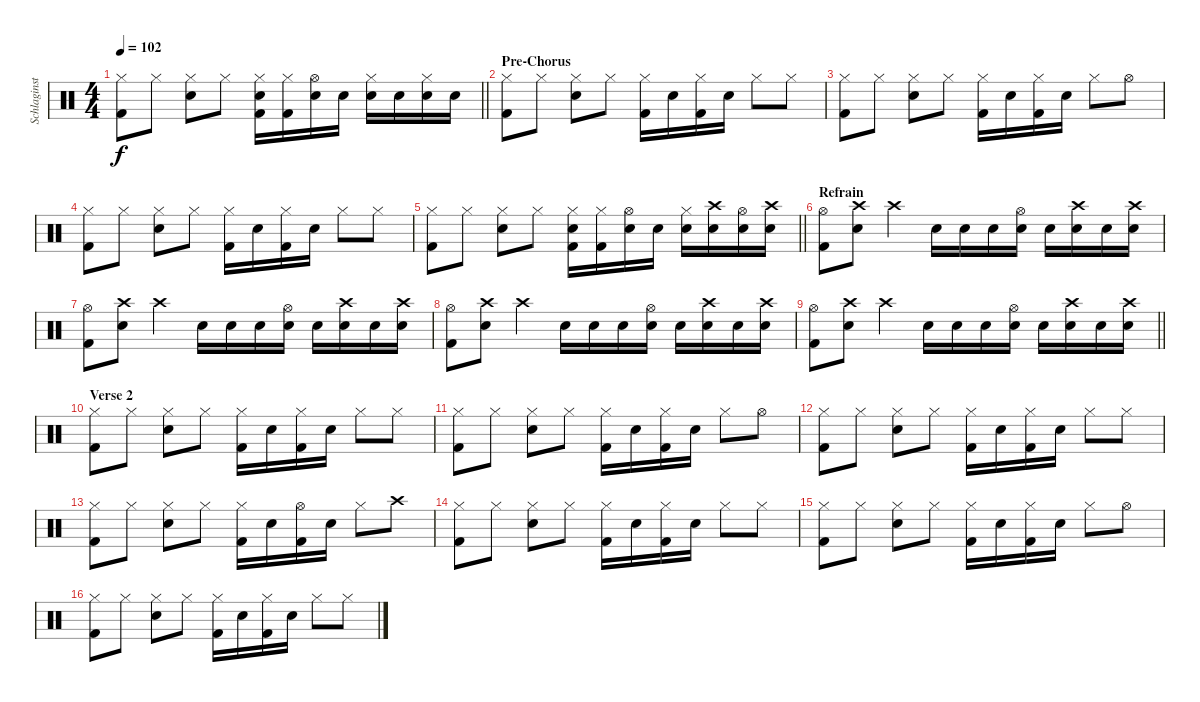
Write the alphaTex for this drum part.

\track ("Schlaginstrumente - Auswahl" "Schlaginst") {instrument percussion}
\staff {score}
\articulation defaults
\ts (4 4)
\tempo 102
\clef neutral
\barLineRight lightlight
\ks c
("Hi-Hat (closed)" "Kick (hit) 2").8{dy f} "Hi-Hat (closed)".8 ("Hi-Hat (closed)" "Electric Snare (hit)").8 "Hi-Hat (closed)".8 ("Hi-Hat (closed)" "Electric Snare (hit)" "Kick (hit) 2").16 ("Hi-Hat (closed)" "Kick (hit) 2").16 ("Hi-Hat (open)" "Electric Snare (hit)").16 "Electric Snare (hit)".16 ("Hi-Hat (closed)" "Electric Snare (hit)").16 "Electric Snare (hit)".16 ("Hi-Hat (closed)" "Electric Snare (hit)").16 "Electric Snare (hit)".16 |
\section ("" "Pre-Chorus")
("Hi-Hat (closed)" "Kick (hit) 2").8 "Hi-Hat (closed)".8 ("Hi-Hat (closed)" "Electric Snare (hit)").8 "Hi-Hat (closed)".8 ("Hi-Hat (closed)" "Kick (hit) 2").16 "Electric Snare (hit)".16 ("Hi-Hat (closed)" "Kick (hit) 2").16 "Electric Snare (hit)".16 "Hi-Hat (closed)".8 "Hi-Hat (closed)".8 |
("Hi-Hat (closed)" "Kick (hit) 2").8 "Hi-Hat (closed)".8 ("Hi-Hat (closed)" "Electric Snare (hit)").8 "Hi-Hat (closed)".8 ("Hi-Hat (closed)" "Kick (hit) 2").16 "Electric Snare (hit)".16 ("Hi-Hat (closed)" "Kick (hit) 2").16 "Electric Snare (hit)".16 "Hi-Hat (closed)".8 "Hi-Hat (open)".8 |
("Hi-Hat (closed)" "Kick (hit) 2").8 "Hi-Hat (closed)".8 ("Hi-Hat (closed)" "Electric Snare (hit)").8 "Hi-Hat (closed)".8 ("Hi-Hat (closed)" "Kick (hit) 2").16 "Electric Snare (hit)".16 ("Hi-Hat (closed)" "Kick (hit) 2").16 "Electric Snare (hit)".16 "Hi-Hat (closed)".8 "Hi-Hat (closed)".8 |
\barLineRight lightlight
("Hi-Hat (closed)" "Kick (hit) 2").8 "Hi-Hat (closed)".8 ("Hi-Hat (closed)" "Electric Snare (hit)").8 "Hi-Hat (closed)".8 ("Hi-Hat (closed)" "Electric Snare (hit)" "Kick (hit) 2").16 ("Hi-Hat (closed)" "Kick (hit) 2").16 ("Hi-Hat (open)" "Electric Snare (hit)").16 "Electric Snare (hit)".16 ("Hi-Hat (closed)" "Electric Snare (hit)").16 ("Crash high (hit)" "Electric Snare (hit)").16 ("Hi-Hat (open)" "Electric Snare (hit)").16 ("Crash high (hit)" "Electric Snare (hit)").16 |
\section ("" "Refrain")
("Hi-Hat (open)" "Kick (hit) 2").8 ("Crash high (hit)" "Electric Snare (hit)").8 "Crash high (hit)".4 "Snare (hit) 2".16 "Snare (hit) 2".16 "Snare (hit) 2".16 ("Snare (hit) 2" "Hi-Hat (open)").16 "Snare (hit) 2".16 ("Snare (hit) 2" "Crash high (hit)").16 "Snare (hit) 2".16 ("Snare (hit) 2" "Crash high (hit)").16 |
("Hi-Hat (open)" "Kick (hit) 2").8 ("Crash high (hit)" "Electric Snare (hit)").8 "Crash high (hit)".4 "Snare (hit) 2".16 "Snare (hit) 2".16 "Snare (hit) 2".16 ("Snare (hit) 2" "Hi-Hat (open)").16 "Snare (hit) 2".16 ("Snare (hit) 2" "Crash high (hit)").16 "Snare (hit) 2".16 ("Snare (hit) 2" "Crash high (hit)").16 |
("Hi-Hat (open)" "Kick (hit) 2").8 ("Crash high (hit)" "Electric Snare (hit)").8 "Crash high (hit)".4 "Snare (hit) 2".16 "Snare (hit) 2".16 "Snare (hit) 2".16 ("Snare (hit) 2" "Hi-Hat (open)").16 "Snare (hit) 2".16 ("Snare (hit) 2" "Crash high (hit)").16 "Snare (hit) 2".16 ("Snare (hit) 2" "Crash high (hit)").16 |
\barLineRight lightlight
("Hi-Hat (open)" "Kick (hit) 2").8 ("Crash high (hit)" "Electric Snare (hit)").8 "Crash high (hit)".4 "Snare (hit) 2".16 "Snare (hit) 2".16 "Snare (hit) 2".16 ("Snare (hit) 2" "Hi-Hat (open)").16 "Snare (hit) 2".16 ("Snare (hit) 2" "Crash high (hit)").16 "Snare (hit) 2".16 ("Snare (hit) 2" "Crash high (hit)").16 |
\section ("" "Verse 2")
("Hi-Hat (closed)" "Kick (hit) 2").8 "Hi-Hat (closed)".8 ("Hi-Hat (closed)" "Electric Snare (hit)").8 "Hi-Hat (closed)".8 ("Hi-Hat (closed)" "Kick (hit) 2").16 "Electric Snare (hit)".16 ("Hi-Hat (closed)" "Kick (hit) 2").16 "Electric Snare (hit)".16 "Hi-Hat (closed)".8 "Hi-Hat (closed)".8 |
("Hi-Hat (closed)" "Kick (hit) 2").8 "Hi-Hat (closed)".8 ("Hi-Hat (closed)" "Electric Snare (hit)").8 "Hi-Hat (closed)".8 ("Hi-Hat (closed)" "Kick (hit) 2").16 "Electric Snare (hit)".16 ("Hi-Hat (closed)" "Kick (hit) 2").16 "Electric Snare (hit)".16 "Hi-Hat (closed)".8 "Hi-Hat (open)".8 |
("Hi-Hat (closed)" "Kick (hit) 2").8 "Hi-Hat (closed)".8 ("Hi-Hat (closed)" "Electric Snare (hit)").8 "Hi-Hat (closed)".8 ("Hi-Hat (closed)" "Kick (hit) 2").16 "Electric Snare (hit)".16 ("Hi-Hat (closed)" "Kick (hit) 2").16 "Electric Snare (hit)".16 "Hi-Hat (closed)".8 "Hi-Hat (closed)".8 |
("Hi-Hat (closed)" "Kick (hit) 2").8 "Hi-Hat (closed)".8 ("Hi-Hat (closed)" "Electric Snare (hit)").8 "Hi-Hat (closed)".8 ("Hi-Hat (closed)" "Kick (hit) 2").16 "Electric Snare (hit)".16 ("Hi-Hat (open)" "Kick (hit) 2").16 "Electric Snare (hit)".16 "Hi-Hat (closed)".8 "Crash high (hit)".8 |
("Hi-Hat (closed)" "Kick (hit) 2").8 "Hi-Hat (closed)".8 ("Hi-Hat (closed)" "Electric Snare (hit)").8 "Hi-Hat (closed)".8 ("Hi-Hat (closed)" "Kick (hit) 2").16 "Electric Snare (hit)".16 ("Hi-Hat (closed)" "Kick (hit) 2").16 "Electric Snare (hit)".16 "Hi-Hat (closed)".8 "Hi-Hat (closed)".8 |
("Hi-Hat (closed)" "Kick (hit) 2").8 "Hi-Hat (closed)".8 ("Hi-Hat (closed)" "Electric Snare (hit)").8 "Hi-Hat (closed)".8 ("Hi-Hat (closed)" "Kick (hit) 2").16 "Electric Snare (hit)".16 ("Hi-Hat (closed)" "Kick (hit) 2").16 "Electric Snare (hit)".16 "Hi-Hat (closed)".8 "Hi-Hat (open)".8 |
("Hi-Hat (closed)" "Kick (hit) 2").8 "Hi-Hat (closed)".8 ("Hi-Hat (closed)" "Electric Snare (hit)").8 "Hi-Hat (closed)".8 ("Hi-Hat (closed)" "Kick (hit) 2").16 "Electric Snare (hit)".16 ("Hi-Hat (closed)" "Kick (hit) 2").16 "Electric Snare (hit)".16 "Hi-Hat (closed)".8 "Hi-Hat (closed)".8
